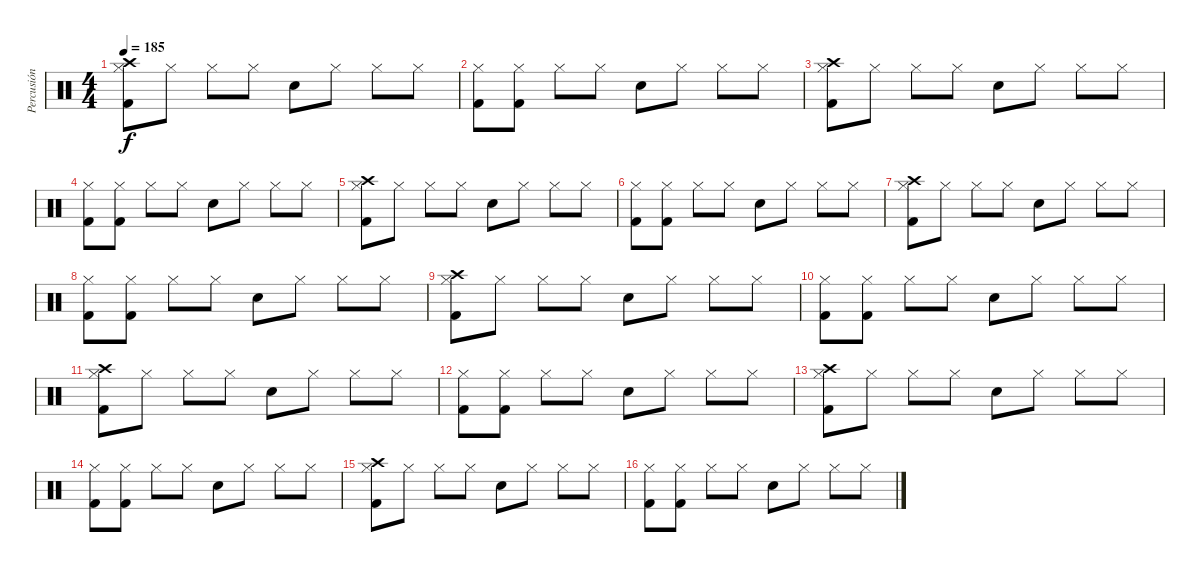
\track ("Percusión" "Percusión") {instrument percussion}
\staff {score}
\articulation defaults
\ts (4 4)
\tempo 185
\clef neutral
\ks c
("Crash high (hit)" "Hi-Hat (closed)" "Kick (hit) 2").8{dy f} "Hi-Hat (closed)".8 "Hi-Hat (closed)".8 "Hi-Hat (closed)".8 "Electric Snare (hit)".8 "Hi-Hat (closed)".8 "Hi-Hat (closed)".8 "Hi-Hat (closed)".8 |
("Hi-Hat (closed)" "Kick (hit) 2").8 ("Hi-Hat (closed)" "Kick (hit) 2").8 "Hi-Hat (closed)".8 "Hi-Hat (closed)".8 "Electric Snare (hit)".8 "Hi-Hat (closed)".8 "Hi-Hat (closed)".8 "Hi-Hat (closed)".8 |
("Crash high (hit)" "Hi-Hat (closed)" "Kick (hit) 2").8 "Hi-Hat (closed)".8 "Hi-Hat (closed)".8 "Hi-Hat (closed)".8 "Electric Snare (hit)".8 "Hi-Hat (closed)".8 "Hi-Hat (closed)".8 "Hi-Hat (closed)".8 |
("Hi-Hat (closed)" "Kick (hit) 2").8 ("Hi-Hat (closed)" "Kick (hit) 2").8 "Hi-Hat (closed)".8 "Hi-Hat (closed)".8 "Electric Snare (hit)".8 "Hi-Hat (closed)".8 "Hi-Hat (closed)".8 "Hi-Hat (closed)".8 |
("Crash high (hit)" "Hi-Hat (closed)" "Kick (hit) 2").8 "Hi-Hat (closed)".8 "Hi-Hat (closed)".8 "Hi-Hat (closed)".8 "Electric Snare (hit)".8 "Hi-Hat (closed)".8 "Hi-Hat (closed)".8 "Hi-Hat (closed)".8 |
("Hi-Hat (closed)" "Kick (hit) 2").8 ("Hi-Hat (closed)" "Kick (hit) 2").8 "Hi-Hat (closed)".8 "Hi-Hat (closed)".8 "Electric Snare (hit)".8 "Hi-Hat (closed)".8 "Hi-Hat (closed)".8 "Hi-Hat (closed)".8 |
("Crash high (hit)" "Hi-Hat (closed)" "Kick (hit) 2").8 "Hi-Hat (closed)".8 "Hi-Hat (closed)".8 "Hi-Hat (closed)".8 "Electric Snare (hit)".8 "Hi-Hat (closed)".8 "Hi-Hat (closed)".8 "Hi-Hat (closed)".8 |
("Hi-Hat (closed)" "Kick (hit) 2").8 ("Hi-Hat (closed)" "Kick (hit) 2").8 "Hi-Hat (closed)".8 "Hi-Hat (closed)".8 "Electric Snare (hit)".8 "Hi-Hat (closed)".8 "Hi-Hat (closed)".8 "Hi-Hat (closed)".8 |
("Crash high (hit)" "Hi-Hat (closed)" "Kick (hit) 2").8 "Hi-Hat (closed)".8 "Hi-Hat (closed)".8 "Hi-Hat (closed)".8 "Electric Snare (hit)".8 "Hi-Hat (closed)".8 "Hi-Hat (closed)".8 "Hi-Hat (closed)".8 |
("Hi-Hat (closed)" "Kick (hit) 2").8 ("Hi-Hat (closed)" "Kick (hit) 2").8 "Hi-Hat (closed)".8 "Hi-Hat (closed)".8 "Electric Snare (hit)".8 "Hi-Hat (closed)".8 "Hi-Hat (closed)".8 "Hi-Hat (closed)".8 |
("Crash high (hit)" "Hi-Hat (closed)" "Kick (hit) 2").8 "Hi-Hat (closed)".8 "Hi-Hat (closed)".8 "Hi-Hat (closed)".8 "Electric Snare (hit)".8 "Hi-Hat (closed)".8 "Hi-Hat (closed)".8 "Hi-Hat (closed)".8 |
("Hi-Hat (closed)" "Kick (hit) 2").8 ("Hi-Hat (closed)" "Kick (hit) 2").8 "Hi-Hat (closed)".8 "Hi-Hat (closed)".8 "Electric Snare (hit)".8 "Hi-Hat (closed)".8 "Hi-Hat (closed)".8 "Hi-Hat (closed)".8 |
("Crash high (hit)" "Hi-Hat (closed)" "Kick (hit) 2").8 "Hi-Hat (closed)".8 "Hi-Hat (closed)".8 "Hi-Hat (closed)".8 "Electric Snare (hit)".8 "Hi-Hat (closed)".8 "Hi-Hat (closed)".8 "Hi-Hat (closed)".8 |
("Hi-Hat (closed)" "Kick (hit) 2").8 ("Hi-Hat (closed)" "Kick (hit) 2").8 "Hi-Hat (closed)".8 "Hi-Hat (closed)".8 "Electric Snare (hit)".8 "Hi-Hat (closed)".8 "Hi-Hat (closed)".8 "Hi-Hat (closed)".8 |
("Crash high (hit)" "Hi-Hat (closed)" "Kick (hit) 2").8 "Hi-Hat (closed)".8 "Hi-Hat (closed)".8 "Hi-Hat (closed)".8 "Electric Snare (hit)".8 "Hi-Hat (closed)".8 "Hi-Hat (closed)".8 "Hi-Hat (closed)".8 |
("Hi-Hat (closed)" "Kick (hit) 2").8 ("Hi-Hat (closed)" "Kick (hit) 2").8 "Hi-Hat (closed)".8 "Hi-Hat (closed)".8 "Electric Snare (hit)".8 "Hi-Hat (closed)".8 "Hi-Hat (closed)".8 "Hi-Hat (closed)".8
